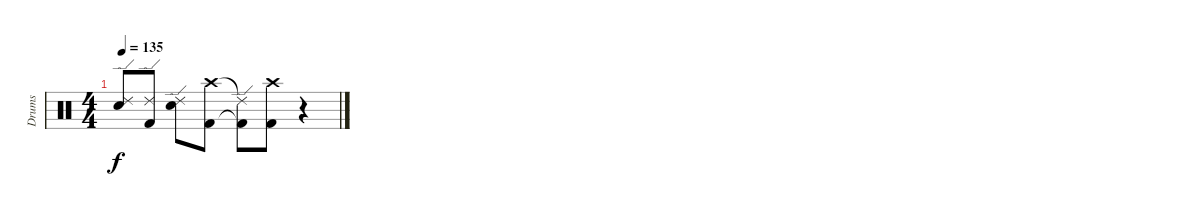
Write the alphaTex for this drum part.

\track ("Drums" "Drums") {instrument percussion}
\staff {score}
\articulation defaults
\ts (4 4)
\tempo 135
\clef neutral
\ks c
("Ride (edge) 2"{t} "Snare (hit)"{t}).8{dy f} ("Ride (edge) 2" "Kick (hit) 2").8 ("Ride (edge) 2" "Electric Snare (hit)").8 ("Crash high (hit)" "Kick (hit) 2").8 ("Ride (edge) 2"{t} "Kick (hit) 2"{t}).8 ("Crash high (hit)" "Kick (hit) 2").8 r.4
